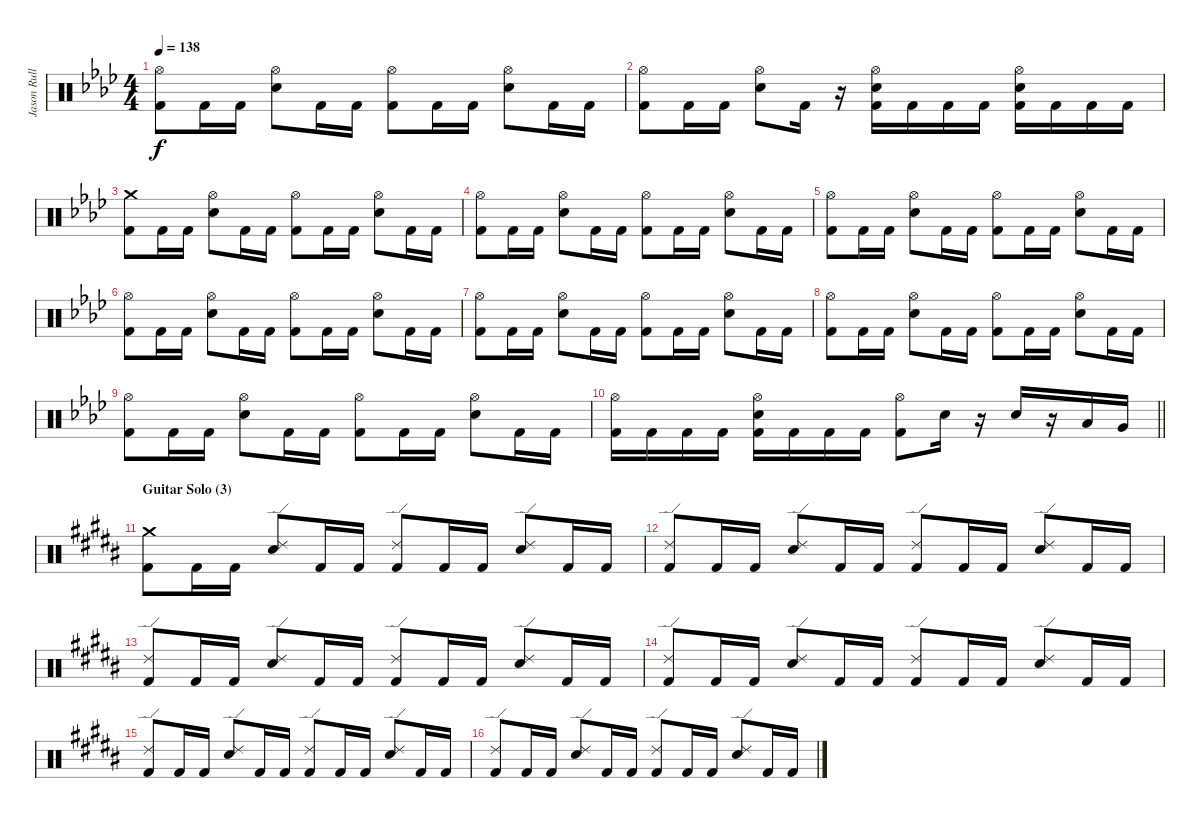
\track ("Jason Rullo (drums)" "Jason Rull") {instrument percussion}
\staff {score}
\articulation defaults
\ts (4 4)
\tempo 138
\clef neutral
\ks fminor
("Hi-Hat (open)" "Kick (hit) 2").8{dy f} "Kick (hit) 2".16 "Kick (hit) 2".16 ("Hi-Hat (open)" "Electric Snare (hit)").8 "Kick (hit) 2".16 "Kick (hit) 2".16 ("Hi-Hat (open)" "Kick (hit) 2").8 "Kick (hit) 2".16 "Kick (hit) 2".16 ("Hi-Hat (open)" "Electric Snare (hit)").8 "Kick (hit) 2".16 "Kick (hit) 2".16 |
("Hi-Hat (open)" "Kick (hit) 2").8 "Kick (hit) 2".16 "Kick (hit) 2".16 ("Hi-Hat (open)" "Electric Snare (hit)").8 "Kick (hit) 2".16 r.16 ("Electric Snare (hit)" "Hi-Hat (open)" "Kick (hit) 2").16 "Kick (hit) 2".16 "Kick (hit) 2".16 "Kick (hit) 2".16 ("Hi-Hat (open)" "Kick (hit) 2" "Electric Snare (hit)").16 "Kick (hit) 2".16 "Kick (hit) 2".16 "Kick (hit) 2".16 |
("Crash medium (hit)" "Kick (hit) 2").8 "Kick (hit) 2".16 "Kick (hit) 2".16 ("Hi-Hat (open)" "Electric Snare (hit)").8 "Kick (hit) 2".16 "Kick (hit) 2".16 ("Hi-Hat (open)" "Kick (hit) 2").8 "Kick (hit) 2".16 "Kick (hit) 2".16 ("Hi-Hat (open)" "Electric Snare (hit)").8 "Kick (hit) 2".16 "Kick (hit) 2".16 |
("Hi-Hat (open)" "Kick (hit) 2").8 "Kick (hit) 2".16 "Kick (hit) 2".16 ("Hi-Hat (open)" "Electric Snare (hit)").8 "Kick (hit) 2".16 "Kick (hit) 2".16 ("Hi-Hat (open)" "Kick (hit) 2").8 "Kick (hit) 2".16 "Kick (hit) 2".16 ("Hi-Hat (open)" "Electric Snare (hit)").8 "Kick (hit) 2".16 "Kick (hit) 2".16 |
("Hi-Hat (open)" "Kick (hit) 2").8 "Kick (hit) 2".16 "Kick (hit) 2".16 ("Hi-Hat (open)" "Electric Snare (hit)").8 "Kick (hit) 2".16 "Kick (hit) 2".16 ("Hi-Hat (open)" "Kick (hit) 2").8 "Kick (hit) 2".16 "Kick (hit) 2".16 ("Hi-Hat (open)" "Electric Snare (hit)").8 "Kick (hit) 2".16 "Kick (hit) 2".16 |
("Hi-Hat (open)" "Kick (hit) 2").8 "Kick (hit) 2".16 "Kick (hit) 2".16 ("Hi-Hat (open)" "Electric Snare (hit)").8 "Kick (hit) 2".16 "Kick (hit) 2".16 ("Hi-Hat (open)" "Kick (hit) 2").8 "Kick (hit) 2".16 "Kick (hit) 2".16 ("Hi-Hat (open)" "Electric Snare (hit)").8 "Kick (hit) 2".16 "Kick (hit) 2".16 |
("Hi-Hat (open)" "Kick (hit) 2").8 "Kick (hit) 2".16 "Kick (hit) 2".16 ("Hi-Hat (open)" "Electric Snare (hit)").8 "Kick (hit) 2".16 "Kick (hit) 2".16 ("Hi-Hat (open)" "Kick (hit) 2").8 "Kick (hit) 2".16 "Kick (hit) 2".16 ("Hi-Hat (open)" "Electric Snare (hit)").8 "Kick (hit) 2".16 "Kick (hit) 2".16 |
("Hi-Hat (open)" "Kick (hit) 2").8 "Kick (hit) 2".16 "Kick (hit) 2".16 ("Hi-Hat (open)" "Electric Snare (hit)").8 "Kick (hit) 2".16 "Kick (hit) 2".16 ("Hi-Hat (open)" "Kick (hit) 2").8 "Kick (hit) 2".16 "Kick (hit) 2".16 ("Hi-Hat (open)" "Electric Snare (hit)").8 "Kick (hit) 2".16 "Kick (hit) 2".16 |
("Hi-Hat (open)" "Kick (hit) 2").8 "Kick (hit) 2".16 "Kick (hit) 2".16 ("Hi-Hat (open)" "Electric Snare (hit)").8 "Kick (hit) 2".16 "Kick (hit) 2".16 ("Hi-Hat (open)" "Kick (hit) 2").8 "Kick (hit) 2".16 "Kick (hit) 2".16 ("Hi-Hat (open)" "Electric Snare (hit)").8 "Kick (hit) 2".16 "Kick (hit) 2".16 |
\barLineRight lightlight
("Hi-Hat (open)" "Kick (hit) 2").16 "Kick (hit) 2".16 "Kick (hit) 2".16 "Kick (hit) 2".16 ("Hi-Hat (open)" "Kick (hit) 2" "Electric Snare (hit)").16 "Kick (hit) 2".16 "Kick (hit) 2".16 "Kick (hit) 2".16 ("Hi-Hat (open)" "Kick (hit) 2").8 "Electric Snare (hit)".16 r.16 "Electric Snare (hit)".16 r.16 "Low Tom (hit)".16 "Very Low Tom (hit)".16 |
\section ("" "Guitar Solo (3)")
\ks g#minor
("Crash medium (hit)" "Kick (hit) 2").8 "Kick (hit) 2".16 "Kick (hit) 2".16 ("Ride (edge) 2" "Electric Snare (hit)").8 "Kick (hit) 2".16 "Kick (hit) 2".16 ("Ride (edge) 2" "Kick (hit) 2").8 "Kick (hit) 2".16 "Kick (hit) 2".16 ("Ride (edge) 2" "Electric Snare (hit)").8 "Kick (hit) 2".16 "Kick (hit) 2".16 |
("Ride (edge) 2" "Kick (hit) 2").8 "Kick (hit) 2".16 "Kick (hit) 2".16 ("Ride (edge) 2" "Electric Snare (hit)").8 "Kick (hit) 2".16 "Kick (hit) 2".16 ("Ride (edge) 2" "Kick (hit) 2").8 "Kick (hit) 2".16 "Kick (hit) 2".16 ("Ride (edge) 2" "Electric Snare (hit)").8 "Kick (hit) 2".16 "Kick (hit) 2".16 |
("Ride (edge) 2" "Kick (hit) 2").8 "Kick (hit) 2".16 "Kick (hit) 2".16 ("Ride (edge) 2" "Electric Snare (hit)").8 "Kick (hit) 2".16 "Kick (hit) 2".16 ("Ride (edge) 2" "Kick (hit) 2").8 "Kick (hit) 2".16 "Kick (hit) 2".16 ("Ride (edge) 2" "Electric Snare (hit)").8 "Kick (hit) 2".16 "Kick (hit) 2".16 |
("Ride (edge) 2" "Kick (hit) 2").8 "Kick (hit) 2".16 "Kick (hit) 2".16 ("Ride (edge) 2" "Electric Snare (hit)").8 "Kick (hit) 2".16 "Kick (hit) 2".16 ("Ride (edge) 2" "Kick (hit) 2").8 "Kick (hit) 2".16 "Kick (hit) 2".16 ("Ride (edge) 2" "Electric Snare (hit)").8 "Kick (hit) 2".16 "Kick (hit) 2".16 |
("Ride (edge) 2" "Kick (hit) 2").8 "Kick (hit) 2".16 "Kick (hit) 2".16 ("Ride (edge) 2" "Electric Snare (hit)").8 "Kick (hit) 2".16 "Kick (hit) 2".16 ("Ride (edge) 2" "Kick (hit) 2").8 "Kick (hit) 2".16 "Kick (hit) 2".16 ("Ride (edge) 2" "Electric Snare (hit)").8 "Kick (hit) 2".16 "Kick (hit) 2".16 |
("Ride (edge) 2" "Kick (hit) 2").8 "Kick (hit) 2".16 "Kick (hit) 2".16 ("Ride (edge) 2" "Electric Snare (hit)").8 "Kick (hit) 2".16 "Kick (hit) 2".16 ("Ride (edge) 2" "Kick (hit) 2").8 "Kick (hit) 2".16 "Kick (hit) 2".16 ("Ride (edge) 2" "Electric Snare (hit)").8 "Kick (hit) 2".16 "Kick (hit) 2".16
